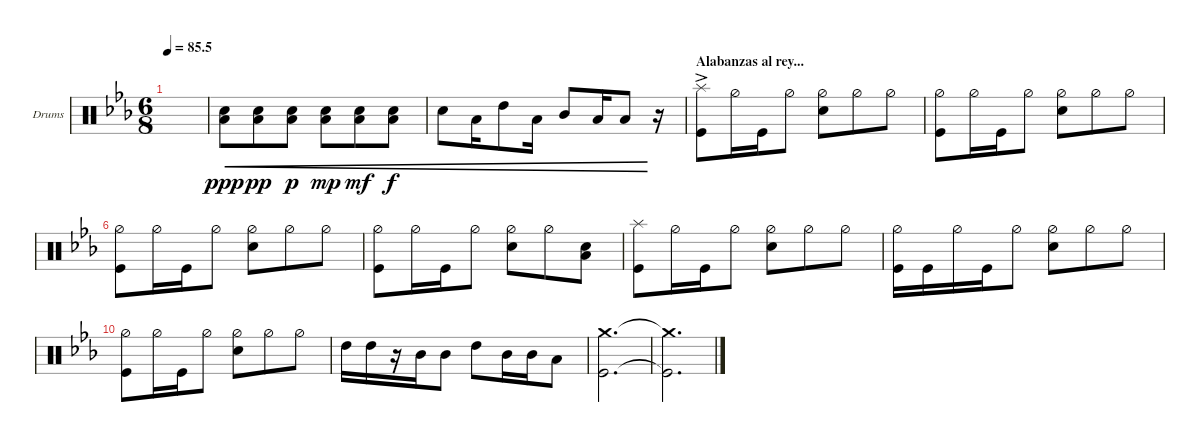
\defaultSystemsLayout 4
\bracketExtendMode groupsimilarinstruments
\multiTrackTrackNamePolicy allsystems
\firstSystemTrackNameOrientation horizontal
\otherSystemsTrackNameOrientation horizontal
\defaultBarNumberDisplay FirstOfSystem
\track ("Drumkit" "Drums") {instrument percussion}
\staff {score}
\articulation defaults
\ts (6 8)
\tempo
85.5
\accidentals auto
\clef neutral
\ottava regular
\simile none
\ks eb
|
("Snare (hit) 2" "Low Tom (hit)").8{cre dy ppp} ("Snare (hit) 2" "Low Tom (hit)").8{cre dy pp} ("Snare (hit) 2" "Low Tom (hit)").8{cre dy p} ("Snare (hit) 2" "Low Tom (hit)").8{cre dy mp} ("Snare (hit) 2" "Low Tom (hit)").8{cre dy mf} ("Snare (hit) 2" "Low Tom (hit)").8{cre dy f} |
"Snare (hit) 2".8{cre} "Low Tom (hit)".16{cre} "High Tom (hit)".8{cre} "Low Tom (hit)".16{cre} "Mid Tom (hit)".8{cre} "Low Tom (hit)".16{cre} "Low Tom (hit)".8{cre} r.16 |
\section ("" "Alabanzas al rey...")
("Splash (hit)"{ac} "Kick (hit)"{ac}).8 "Hi-Hat (half)".16 "Kick (hit)".16 "Hi-Hat (half)".8 ("Hi-Hat (half)" "Snare (hit) 2").8 "Hi-Hat (half)".8 "Hi-Hat (half)".8 |
("Kick (hit)" "Hi-Hat (half)").8 "Hi-Hat (half)".16 "Kick (hit)".16 "Hi-Hat (half)".8 ("Hi-Hat (half)" "Snare (hit) 2").8 "Hi-Hat (half)".8 "Hi-Hat (half)".8 |
("Kick (hit)" "Hi-Hat (half)").8 "Hi-Hat (half)".16 "Kick (hit)".16 "Hi-Hat (half)".8 ("Hi-Hat (half)" "Snare (hit) 2").8 "Hi-Hat (half)".8 "Hi-Hat (half)".8 |
("Kick (hit)" "Hi-Hat (half)").8 "Hi-Hat (half)".16 "Kick (hit)".16 "Hi-Hat (half)".8 ("Hi-Hat (half)" "Snare (hit) 2").8 "Hi-Hat (half)".8 ("Snare (hit) 2" "Low Tom (hit)").8 |
("Splash (hit)" "Kick (hit)").8 "Hi-Hat (half)".16 "Kick (hit)".16 "Hi-Hat (half)".8 ("Hi-Hat (half)" "Snare (hit) 2").8 "Hi-Hat (half)".8 "Hi-Hat (half)".8 |
("Kick (hit)" "Hi-Hat (half)").16 "Kick (hit)".16 "Hi-Hat (half)".16 "Kick (hit)".16 "Hi-Hat (half)".8 ("Hi-Hat (half)" "Snare (hit) 2").8 "Hi-Hat (half)".8 "Hi-Hat (half)".8 |
("Kick (hit)" "Hi-Hat (half)").8 "Hi-Hat (half)".16 "Kick (hit)".16 "Hi-Hat (half)".8 ("Hi-Hat (half)" "Snare (hit) 2").8 "Hi-Hat (half)".8 "Hi-Hat (half)".8 |
"High Tom (hit)".16 "High Tom (hit)".16 r.16 "Mid Tom (hit)".16 "Mid Tom (hit)".8 "High Tom (hit)".8 "Mid Tom (hit)".16 "Mid Tom (hit)".16 "Low Tom (hit)".8 |
("Kick (hit)" "Crash medium (hit)").2{d} |
("Kick (hit)"{t} "Crash medium (hit)"{t}).2{d}
